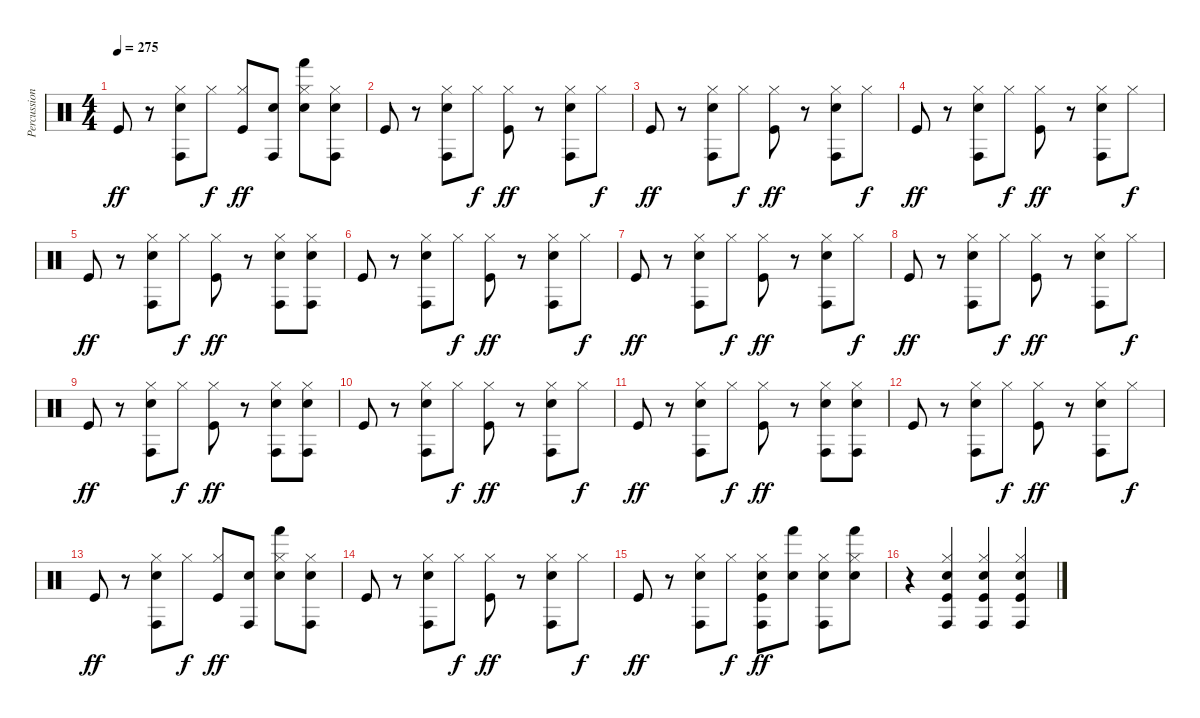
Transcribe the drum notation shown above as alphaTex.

\track ("Percussion" "Percussion") {instrument percussion}
\staff {score}
\articulation defaults
\ts (4 4)
\tempo 275
\clef neutral
\ks c "Kick (hit)".8{dy ff}
r.8 ("Hi-Hat (closed)" "Conga high (hit)" "Electric Snare (hit)").8 "Hi-Hat (closed)".8{dy f} ("Hi-Hat (closed)" "Kick (hit)").8{dy ff} ("Conga high (hit)" "Electric Snare (hit)").8 ("Hi-Hat (closed)" "Hand (hit)" "Electric Snare (hit)").8 ("Hi-Hat (closed)" "Conga high (hit)" "Electric Snare (hit)").8 |
"Kick (hit)".8 r.8 ("Hi-Hat (closed)" "Conga high (hit)" "Electric Snare (hit)").8 "Hi-Hat (closed)".8{dy f} ("Hi-Hat (closed)" "Kick (hit)").8{dy ff} r.8 ("Hi-Hat (closed)" "Conga high (hit)" "Electric Snare (hit)").8 "Hi-Hat (closed)".8{dy f} |
"Kick (hit)".8{dy ff} r.8 ("Hi-Hat (closed)" "Conga high (hit)" "Electric Snare (hit)").8 "Hi-Hat (closed)".8{dy f} ("Hi-Hat (closed)" "Kick (hit)").8{dy ff} r.8 ("Hi-Hat (closed)" "Conga high (hit)" "Electric Snare (hit)").8 "Hi-Hat (closed)".8{dy f} |
"Kick (hit)".8{dy ff} r.8 ("Hi-Hat (closed)" "Conga high (hit)" "Electric Snare (hit)").8 "Hi-Hat (closed)".8{dy f} ("Hi-Hat (closed)" "Kick (hit)").8{dy ff} r.8 ("Hi-Hat (closed)" "Conga high (hit)" "Electric Snare (hit)").8 "Hi-Hat (closed)".8{dy f} |
"Kick (hit)".8{dy ff} r.8 ("Hi-Hat (closed)" "Conga high (hit)" "Electric Snare (hit)").8 "Hi-Hat (closed)".8{dy f} ("Hi-Hat (closed)" "Kick (hit)").8{dy ff} r.8 ("Hi-Hat (closed)" "Conga high (hit)" "Electric Snare (hit)").8 ("Hi-Hat (closed)" "Conga high (hit)" "Electric Snare (hit)").8 |
"Kick (hit)".8 r.8 ("Hi-Hat (closed)" "Conga high (hit)" "Electric Snare (hit)").8 "Hi-Hat (closed)".8{dy f} ("Hi-Hat (closed)" "Kick (hit)").8{dy ff} r.8 ("Hi-Hat (closed)" "Conga high (hit)" "Electric Snare (hit)").8 "Hi-Hat (closed)".8{dy f} |
"Kick (hit)".8{dy ff} r.8 ("Hi-Hat (closed)" "Conga high (hit)" "Electric Snare (hit)").8 "Hi-Hat (closed)".8{dy f} ("Hi-Hat (closed)" "Kick (hit)").8{dy ff} r.8 ("Hi-Hat (closed)" "Conga high (hit)" "Electric Snare (hit)").8 "Hi-Hat (closed)".8{dy f} |
"Kick (hit)".8{dy ff} r.8 ("Hi-Hat (closed)" "Conga high (hit)" "Electric Snare (hit)").8 "Hi-Hat (closed)".8{dy f} ("Hi-Hat (closed)" "Kick (hit)").8{dy ff} r.8 ("Hi-Hat (closed)" "Conga high (hit)" "Electric Snare (hit)").8 "Hi-Hat (closed)".8{dy f} |
"Kick (hit)".8{dy ff} r.8 ("Hi-Hat (closed)" "Conga high (hit)" "Electric Snare (hit)").8 "Hi-Hat (closed)".8{dy f} ("Hi-Hat (closed)" "Kick (hit)").8{dy ff} r.8 ("Hi-Hat (closed)" "Conga high (hit)" "Electric Snare (hit)").8 ("Hi-Hat (closed)" "Conga high (hit)" "Electric Snare (hit)").8 |
"Kick (hit)".8 r.8 ("Hi-Hat (closed)" "Conga high (hit)" "Electric Snare (hit)").8 "Hi-Hat (closed)".8{dy f} ("Hi-Hat (closed)" "Kick (hit)").8{dy ff} r.8 ("Hi-Hat (closed)" "Conga high (hit)" "Electric Snare (hit)").8 "Hi-Hat (closed)".8{dy f} |
"Kick (hit)".8{dy ff} r.8 ("Hi-Hat (closed)" "Conga high (hit)" "Electric Snare (hit)").8 "Hi-Hat (closed)".8{dy f} ("Hi-Hat (closed)" "Kick (hit)").8{dy ff} r.8 ("Hi-Hat (closed)" "Conga high (hit)" "Electric Snare (hit)").8 ("Hi-Hat (closed)" "Conga high (hit)" "Electric Snare (hit)").8 |
"Kick (hit)".8 r.8 ("Hi-Hat (closed)" "Conga high (hit)" "Electric Snare (hit)").8 "Hi-Hat (closed)".8{dy f} ("Hi-Hat (closed)" "Kick (hit)").8{dy ff} r.8 ("Hi-Hat (closed)" "Conga high (hit)" "Electric Snare (hit)").8 "Hi-Hat (closed)".8{dy f} |
"Kick (hit)".8{dy ff} r.8 ("Hi-Hat (closed)" "Conga high (hit)" "Electric Snare (hit)").8 "Hi-Hat (closed)".8{dy f} ("Hi-Hat (closed)" "Kick (hit)").8{dy ff} ("Conga high (hit)" "Electric Snare (hit)").8 ("Hi-Hat (closed)" "Hand (hit)" "Electric Snare (hit)").8 ("Hi-Hat (closed)" "Conga high (hit)" "Electric Snare (hit)").8 |
"Kick (hit)".8 r.8 ("Hi-Hat (closed)" "Conga high (hit)" "Electric Snare (hit)").8 "Hi-Hat (closed)".8{dy f} ("Hi-Hat (closed)" "Kick (hit)").8{dy ff} r.8 ("Hi-Hat (closed)" "Conga high (hit)" "Electric Snare (hit)").8 "Hi-Hat (closed)".8{dy f} |
"Kick (hit)".8{dy ff} r.8 ("Hi-Hat (closed)" "Conga high (hit)" "Electric Snare (hit)").8 "Hi-Hat (closed)".8{dy f} ("Hi-Hat (closed)" "Conga high (hit)" "Electric Snare (hit)" "Kick (hit)").8{dy ff} ("Hand (hit)" "Electric Snare (hit)").8 ("Hi-Hat (closed)" "Conga high (hit)" "Electric Snare (hit)").8 ("Hi-Hat (closed)" "Hand (hit)" "Electric Snare (hit)").8 |
r.4 ("Hi-Hat (closed)" "Conga high (hit)" "Electric Snare (hit)" "Kick (hit)").4 ("Hi-Hat (closed)" "Conga high (hit)" "Electric Snare (hit)" "Kick (hit)").4 ("Hi-Hat (closed)" "Conga high (hit)" "Electric Snare (hit)" "Kick (hit)").4
